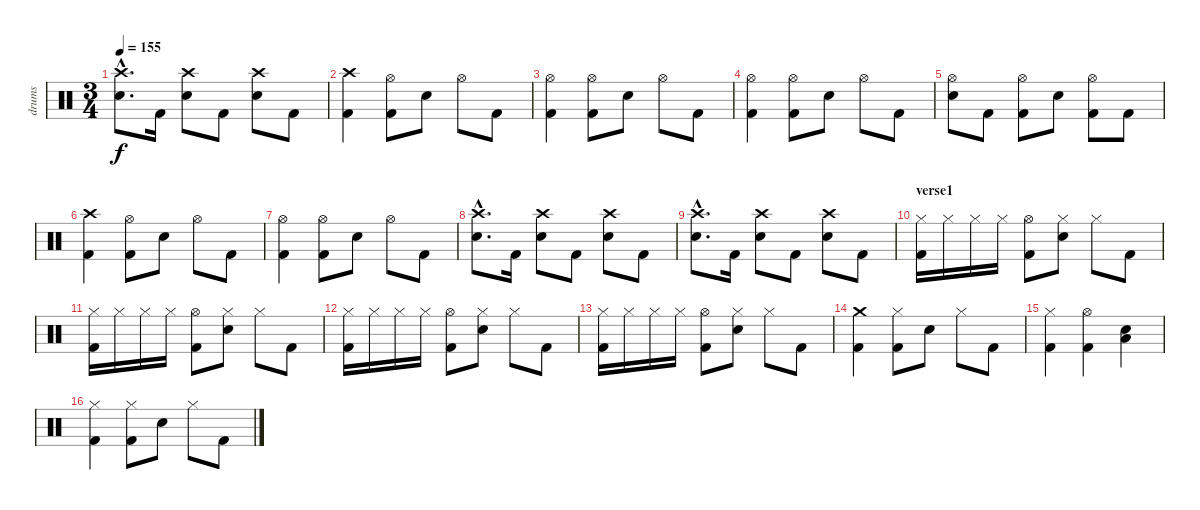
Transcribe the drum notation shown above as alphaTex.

\track ("drums" "drums") {instrument percussion}
\staff {score}
\articulation defaults
\ts (3 4)
\tempo 155
\clef neutral
\ks c
("Crash high (hit)"{hac} "Electric Snare (hit)"{hac}).8{d dy f} "Kick (hit) 2".16 ("Crash high (hit)" "Electric Snare (hit)").8 "Kick (hit) 2".8 ("Crash high (hit)" "Electric Snare (hit)").8 "Kick (hit) 2".8 |
("Crash high (hit)" "Kick (hit) 2").4 ("Hi-Hat (open)" "Kick (hit) 2").8 "Electric Snare (hit)".8 "Hi-Hat (open)".8 "Kick (hit) 2".8 |
("Hi-Hat (open)" "Kick (hit) 2").4 ("Hi-Hat (open)" "Kick (hit) 2").8 "Electric Snare (hit)".8 "Hi-Hat (open)".8 "Kick (hit) 2".8 |
("Hi-Hat (open)" "Kick (hit) 2").4 ("Hi-Hat (open)" "Kick (hit) 2").8 "Electric Snare (hit)".8 "Hi-Hat (open)".8 "Kick (hit) 2".8 |
("Hi-Hat (open)" "Electric Snare (hit)").8 "Kick (hit) 2".8 ("Hi-Hat (open)" "Kick (hit) 2").8 "Electric Snare (hit)".8 ("Hi-Hat (open)" "Kick (hit) 2").8 "Kick (hit) 2".8 |
("Crash high (hit)" "Kick (hit) 2").4 ("Hi-Hat (open)" "Kick (hit) 2").8 "Electric Snare (hit)".8 "Hi-Hat (open)".8 "Kick (hit) 2".8 |
("Hi-Hat (open)" "Kick (hit) 2").4 ("Hi-Hat (open)" "Kick (hit) 2").8 "Electric Snare (hit)".8 "Hi-Hat (open)".8 "Kick (hit) 2".8 |
("Crash high (hit)"{hac} "Electric Snare (hit)"{hac}).8{d} "Kick (hit) 2".16 ("Crash high (hit)" "Electric Snare (hit)").8 "Kick (hit) 2".8 ("Crash high (hit)" "Electric Snare (hit)").8 "Kick (hit) 2".8 |
("Crash high (hit)"{hac} "Electric Snare (hit)"{hac}).8{d} "Kick (hit) 2".16 ("Crash high (hit)" "Electric Snare (hit)").8 "Kick (hit) 2".8 ("Crash high (hit)" "Electric Snare (hit)").8 "Kick (hit) 2".8 |
\section ("" "verse1")
("Hi-Hat (closed)" "Kick (hit) 2").16 "Hi-Hat (closed)".16 "Hi-Hat (closed)".16 "Hi-Hat (closed)".16 ("Hi-Hat (open)" "Kick (hit) 2").8 ("Hi-Hat (closed)" "Electric Snare (hit)").8 "Hi-Hat (closed)".8 "Kick (hit) 2".8 |
("Hi-Hat (closed)" "Kick (hit) 2").16 "Hi-Hat (closed)".16 "Hi-Hat (closed)".16 "Hi-Hat (closed)".16 ("Hi-Hat (open)" "Kick (hit) 2").8 ("Hi-Hat (closed)" "Electric Snare (hit)").8 "Hi-Hat (closed)".8 "Kick (hit) 2".8 |
("Hi-Hat (closed)" "Kick (hit) 2").16 "Hi-Hat (closed)".16 "Hi-Hat (closed)".16 "Hi-Hat (closed)".16 ("Hi-Hat (open)" "Kick (hit) 2").8 ("Hi-Hat (closed)" "Electric Snare (hit)").8 "Hi-Hat (closed)".8 "Kick (hit) 2".8 |
("Hi-Hat (closed)" "Kick (hit) 2").16 "Hi-Hat (closed)".16 "Hi-Hat (closed)".16 "Hi-Hat (closed)".16 ("Hi-Hat (open)" "Kick (hit) 2").8 ("Hi-Hat (closed)" "Electric Snare (hit)").8 "Hi-Hat (closed)".8 "Kick (hit) 2".8 |
("Crash medium (hit)" "Kick (hit) 2").4 ("Hi-Hat (closed)" "Kick (hit) 2").8 "Electric Snare (hit)".8 "Hi-Hat (closed)".8 "Kick (hit) 2".8 |
("Hi-Hat (closed)" "Kick (hit) 2").4 ("Hi-Hat (open)" "Kick (hit) 2").4 ("Low Floor Tom (hit)" "Electric Snare (hit)").4 |
("Hi-Hat (closed)" "Kick (hit) 2").4 ("Hi-Hat (closed)" "Kick (hit) 2").8 "Electric Snare (hit)".8 "Hi-Hat (closed)".8 "Kick (hit) 2".8
